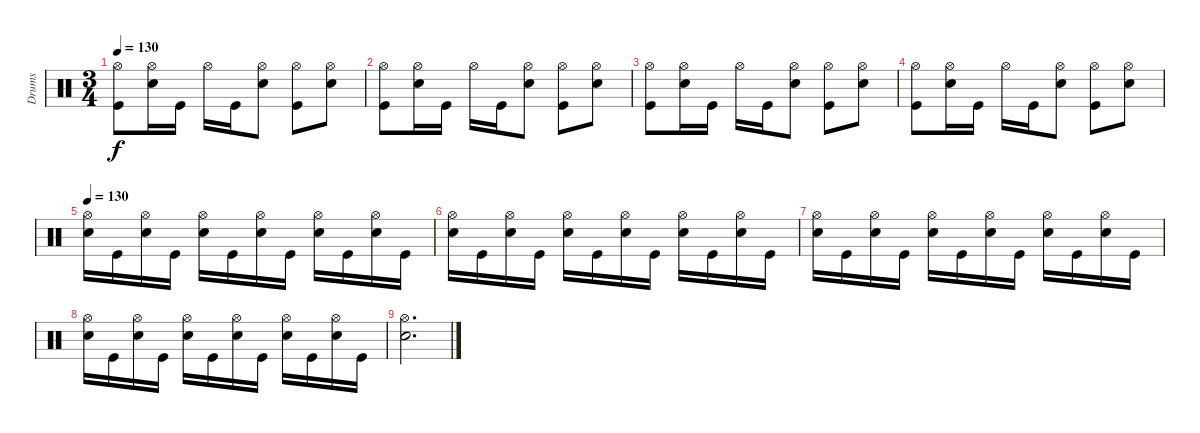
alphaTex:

\track ("Drums" "Drums") {instrument percussion}
\staff {score}
\articulation defaults
\ts (3 4)
\tempo 130
\clef neutral
\ks c
("Hi-Hat (open)" "Kick (hit)").8{dy f} ("Hi-Hat (open)" "Snare (hit) 2").16 "Kick (hit)".16 "Hi-Hat (open)".16 "Kick (hit)".16 ("Hi-Hat (open)" "Snare (hit) 2").8 ("Hi-Hat (open)" "Kick (hit)").8 ("Hi-Hat (open)" "Snare (hit) 2").8 |
("Hi-Hat (open)" "Kick (hit)").8 ("Hi-Hat (open)" "Snare (hit) 2").16 "Kick (hit)".16 "Hi-Hat (open)".16 "Kick (hit)".16 ("Hi-Hat (open)" "Snare (hit) 2").8 ("Hi-Hat (open)" "Kick (hit)").8 ("Hi-Hat (open)" "Snare (hit) 2").8 |
("Hi-Hat (open)" "Kick (hit)").8 ("Hi-Hat (open)" "Snare (hit) 2").16 "Kick (hit)".16 "Hi-Hat (open)".16 "Kick (hit)".16 ("Hi-Hat (open)" "Snare (hit) 2").8 ("Hi-Hat (open)" "Kick (hit)").8 ("Hi-Hat (open)" "Snare (hit) 2").8 |
("Hi-Hat (open)" "Kick (hit)").8 ("Hi-Hat (open)" "Snare (hit) 2").16 "Kick (hit)".16 "Hi-Hat (open)".16 "Kick (hit)".16 ("Hi-Hat (open)" "Snare (hit) 2").8 ("Hi-Hat (open)" "Kick (hit)").8 ("Hi-Hat (open)" "Snare (hit) 2").8 |
\tempo 130
("Hi-Hat (open)" "Snare (hit) 2").16 "Kick (hit)".16 ("Hi-Hat (open)" "Snare (hit) 2").16 "Kick (hit)".16 ("Hi-Hat (open)" "Snare (hit) 2").16 "Kick (hit)".16 ("Hi-Hat (open)" "Snare (hit) 2").16 "Kick (hit)".16 ("Hi-Hat (open)" "Snare (hit) 2").16 "Kick (hit)".16 ("Hi-Hat (open)" "Snare (hit) 2").16 "Kick (hit)".16 |
("Hi-Hat (open)" "Snare (hit) 2").16 "Kick (hit)".16 ("Hi-Hat (open)" "Snare (hit) 2").16 "Kick (hit)".16 ("Hi-Hat (open)" "Snare (hit) 2").16 "Kick (hit)".16 ("Hi-Hat (open)" "Snare (hit) 2").16 "Kick (hit)".16 ("Hi-Hat (open)" "Snare (hit) 2").16 "Kick (hit)".16 ("Hi-Hat (open)" "Snare (hit) 2").16 "Kick (hit)".16 |
("Hi-Hat (open)" "Snare (hit) 2").16 "Kick (hit)".16 ("Hi-Hat (open)" "Snare (hit) 2").16 "Kick (hit)".16 ("Hi-Hat (open)" "Snare (hit) 2").16 "Kick (hit)".16 ("Hi-Hat (open)" "Snare (hit) 2").16 "Kick (hit)".16 ("Hi-Hat (open)" "Snare (hit) 2").16 "Kick (hit)".16 ("Hi-Hat (open)" "Snare (hit) 2").16 "Kick (hit)".16 |
("Hi-Hat (open)" "Snare (hit) 2").16 "Kick (hit)".16 ("Hi-Hat (open)" "Snare (hit) 2").16 "Kick (hit)".16 ("Hi-Hat (open)" "Snare (hit) 2").16 "Kick (hit)".16 ("Hi-Hat (open)" "Snare (hit) 2").16 "Kick (hit)".16 ("Hi-Hat (open)" "Snare (hit) 2").16 "Kick (hit)".16 ("Hi-Hat (open)" "Snare (hit) 2").16 "Kick (hit)".16 |
("Hi-Hat (open)" "Snare (hit) 2").2{d}
